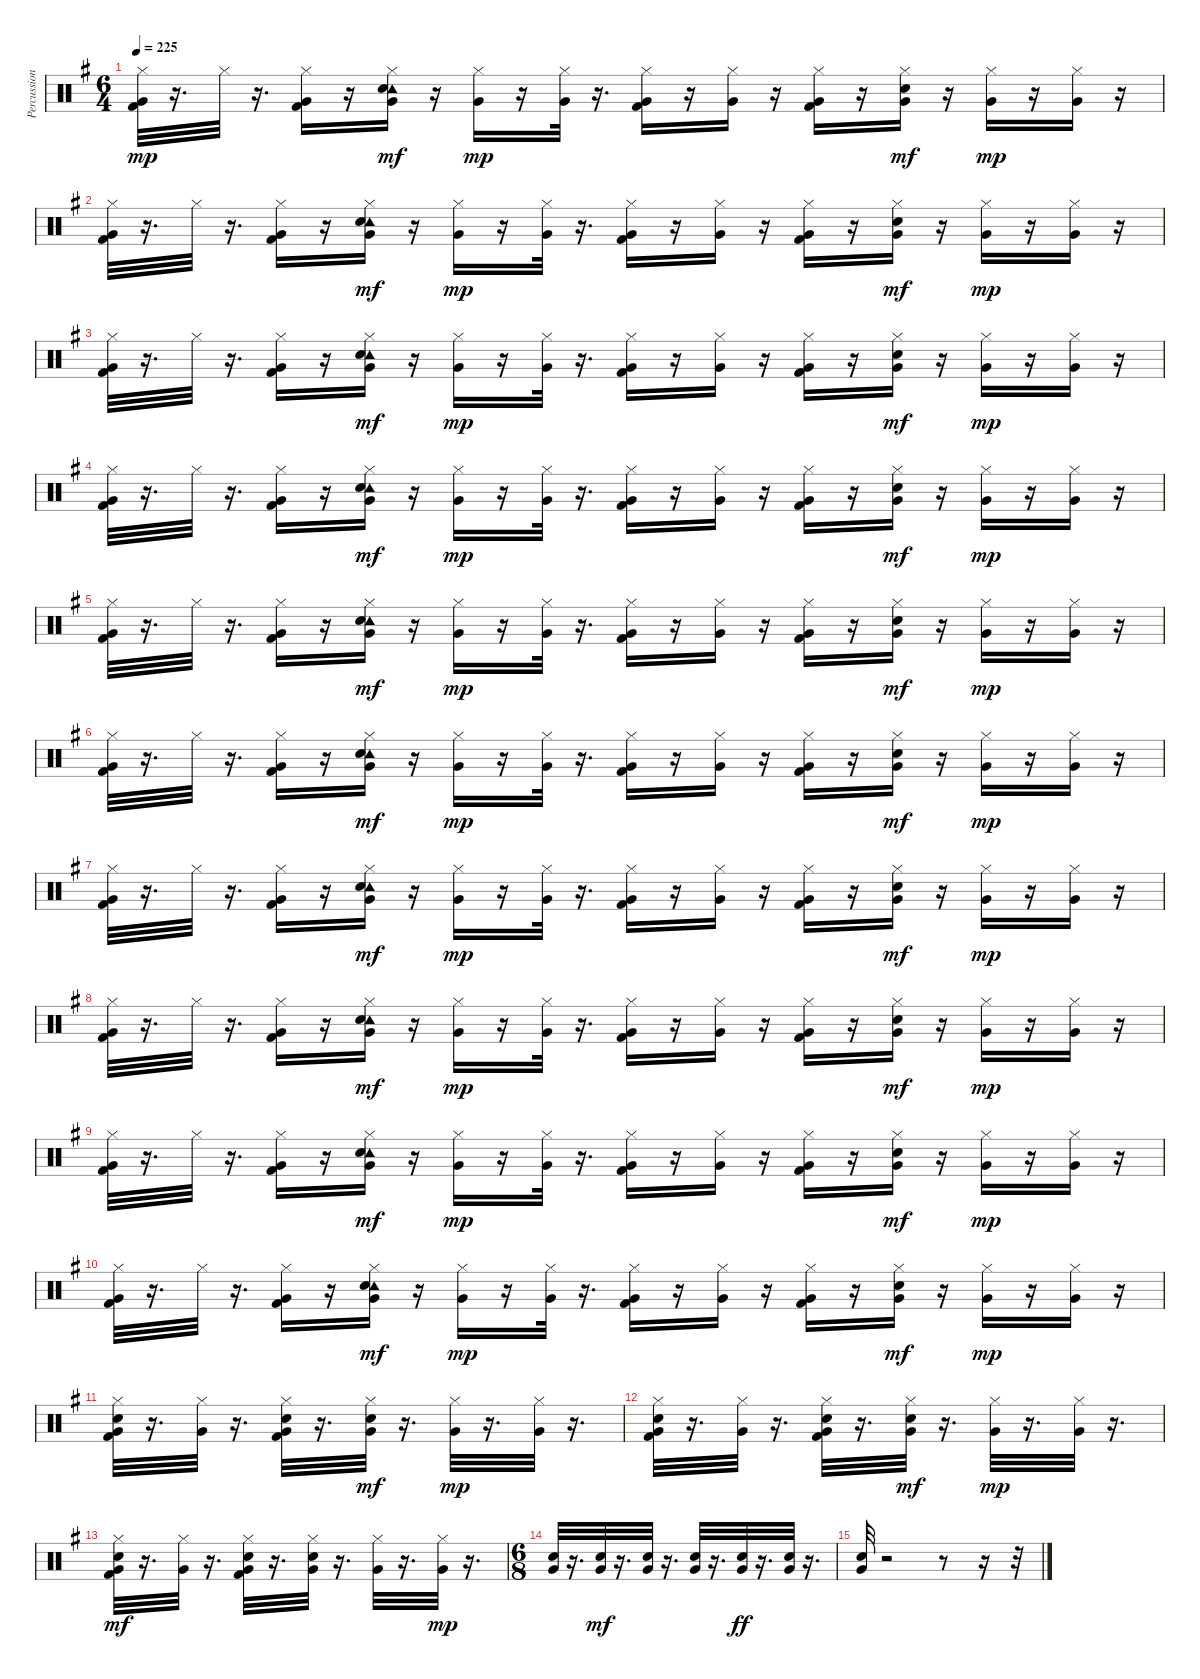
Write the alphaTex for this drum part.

\track ("Percussion" "Percussion") {instrument percussion}
\staff {score}
\articulation defaults
\ts (6 4)
\tempo 225
\clef neutral
\ks eminor
("Hi-Hat (closed)" "Very Low Tom (hit)" "Kick (hit) 2").32{dy mp} r.16{d} "Hi-Hat (closed)".32 r.16{d} ("Hi-Hat (closed)" "Very Low Tom (hit)" "Kick (hit) 2").16 r.16 ("Hi-Hat (closed)" "Very Low Tom (hit)" "Tambourine (hit)" "Electric Snare (hit)").16{dy mf} r.16 ("Hi-Hat (closed)" "Very Low Tom (hit)").16{dy mp} r.16 ("Hi-Hat (closed)" "Very Low Tom (hit)").32 r.16{d} ("Hi-Hat (closed)" "Very Low Tom (hit)" "Kick (hit) 2").16 r.16 ("Hi-Hat (closed)" "Very Low Tom (hit)").16 r.16 ("Hi-Hat (closed)" "Very Low Tom (hit)" "Kick (hit) 2").16 r.16 ("Hi-Hat (closed)" "Very Low Tom (hit)" "Electric Snare (hit)").16{dy mf} r.16 ("Hi-Hat (closed)" "Very Low Tom (hit)").16{dy mp} r.16 ("Hi-Hat (closed)" "Very Low Tom (hit)").16 r.16 |
("Hi-Hat (closed)" "Very Low Tom (hit)" "Kick (hit) 2").32 r.16{d} "Hi-Hat (closed)".32 r.16{d} ("Hi-Hat (closed)" "Very Low Tom (hit)" "Kick (hit) 2").16 r.16 ("Hi-Hat (closed)" "Very Low Tom (hit)" "Tambourine (hit)" "Electric Snare (hit)").16{dy mf} r.16 ("Hi-Hat (closed)" "Very Low Tom (hit)").16{dy mp} r.16 ("Hi-Hat (closed)" "Very Low Tom (hit)").32 r.16{d} ("Hi-Hat (closed)" "Very Low Tom (hit)" "Kick (hit) 2").16 r.16 ("Hi-Hat (closed)" "Very Low Tom (hit)").16 r.16 ("Hi-Hat (closed)" "Very Low Tom (hit)" "Kick (hit) 2").16 r.16 ("Hi-Hat (closed)" "Very Low Tom (hit)" "Electric Snare (hit)").16{dy mf} r.16 ("Hi-Hat (closed)" "Very Low Tom (hit)").16{dy mp} r.16 ("Hi-Hat (closed)" "Very Low Tom (hit)").16 r.16 |
("Hi-Hat (closed)" "Very Low Tom (hit)" "Kick (hit) 2").32 r.16{d} "Hi-Hat (closed)".32 r.16{d} ("Hi-Hat (closed)" "Very Low Tom (hit)" "Kick (hit) 2").16 r.16 ("Hi-Hat (closed)" "Very Low Tom (hit)" "Tambourine (hit)" "Electric Snare (hit)").16{dy mf} r.16 ("Hi-Hat (closed)" "Very Low Tom (hit)").16{dy mp} r.16 ("Hi-Hat (closed)" "Very Low Tom (hit)").32 r.16{d} ("Hi-Hat (closed)" "Very Low Tom (hit)" "Kick (hit) 2").16 r.16 ("Hi-Hat (closed)" "Very Low Tom (hit)").16 r.16 ("Hi-Hat (closed)" "Very Low Tom (hit)" "Kick (hit) 2").16 r.16 ("Hi-Hat (closed)" "Very Low Tom (hit)" "Electric Snare (hit)").16{dy mf} r.16 ("Hi-Hat (closed)" "Very Low Tom (hit)").16{dy mp} r.16 ("Hi-Hat (closed)" "Very Low Tom (hit)").16 r.16 |
("Hi-Hat (closed)" "Very Low Tom (hit)" "Kick (hit) 2").32 r.16{d} "Hi-Hat (closed)".32 r.16{d} ("Hi-Hat (closed)" "Very Low Tom (hit)" "Kick (hit) 2").16 r.16 ("Hi-Hat (closed)" "Very Low Tom (hit)" "Tambourine (hit)" "Electric Snare (hit)").16{dy mf} r.16 ("Hi-Hat (closed)" "Very Low Tom (hit)").16{dy mp} r.16 ("Hi-Hat (closed)" "Very Low Tom (hit)").32 r.16{d} ("Hi-Hat (closed)" "Very Low Tom (hit)" "Kick (hit) 2").16 r.16 ("Hi-Hat (closed)" "Very Low Tom (hit)").16 r.16 ("Hi-Hat (closed)" "Very Low Tom (hit)" "Kick (hit) 2").16 r.16 ("Hi-Hat (closed)" "Very Low Tom (hit)" "Electric Snare (hit)").16{dy mf} r.16 ("Hi-Hat (closed)" "Very Low Tom (hit)").16{dy mp} r.16 ("Hi-Hat (closed)" "Very Low Tom (hit)").16 r.16 |
("Hi-Hat (closed)" "Very Low Tom (hit)" "Kick (hit) 2").32 r.16{d} "Hi-Hat (closed)".32 r.16{d} ("Hi-Hat (closed)" "Very Low Tom (hit)" "Kick (hit) 2").16 r.16 ("Hi-Hat (closed)" "Very Low Tom (hit)" "Tambourine (hit)" "Electric Snare (hit)").16{dy mf} r.16 ("Hi-Hat (closed)" "Very Low Tom (hit)").16{dy mp} r.16 ("Hi-Hat (closed)" "Very Low Tom (hit)").32 r.16{d} ("Hi-Hat (closed)" "Very Low Tom (hit)" "Kick (hit) 2").16 r.16 ("Hi-Hat (closed)" "Very Low Tom (hit)").16 r.16 ("Hi-Hat (closed)" "Very Low Tom (hit)" "Kick (hit) 2").16 r.16 ("Hi-Hat (closed)" "Very Low Tom (hit)" "Electric Snare (hit)").16{dy mf} r.16 ("Hi-Hat (closed)" "Very Low Tom (hit)").16{dy mp} r.16 ("Hi-Hat (closed)" "Very Low Tom (hit)").16 r.16 |
("Hi-Hat (closed)" "Very Low Tom (hit)" "Kick (hit) 2").32 r.16{d} "Hi-Hat (closed)".32 r.16{d} ("Hi-Hat (closed)" "Very Low Tom (hit)" "Kick (hit) 2").16 r.16 ("Hi-Hat (closed)" "Very Low Tom (hit)" "Tambourine (hit)" "Electric Snare (hit)").16{dy mf} r.16 ("Hi-Hat (closed)" "Very Low Tom (hit)").16{dy mp} r.16 ("Hi-Hat (closed)" "Very Low Tom (hit)").32 r.16{d} ("Hi-Hat (closed)" "Very Low Tom (hit)" "Kick (hit) 2").16 r.16 ("Hi-Hat (closed)" "Very Low Tom (hit)").16 r.16 ("Hi-Hat (closed)" "Very Low Tom (hit)" "Kick (hit) 2").16 r.16 ("Hi-Hat (closed)" "Very Low Tom (hit)" "Electric Snare (hit)").16{dy mf} r.16 ("Hi-Hat (closed)" "Very Low Tom (hit)").16{dy mp} r.16 ("Hi-Hat (closed)" "Very Low Tom (hit)").16 r.16 |
("Hi-Hat (closed)" "Very Low Tom (hit)" "Kick (hit) 2").32 r.16{d} "Hi-Hat (closed)".32 r.16{d} ("Hi-Hat (closed)" "Very Low Tom (hit)" "Kick (hit) 2").16 r.16 ("Hi-Hat (closed)" "Very Low Tom (hit)" "Tambourine (hit)" "Electric Snare (hit)").16{dy mf} r.16 ("Hi-Hat (closed)" "Very Low Tom (hit)").16{dy mp} r.16 ("Hi-Hat (closed)" "Very Low Tom (hit)").32 r.16{d} ("Hi-Hat (closed)" "Very Low Tom (hit)" "Kick (hit) 2").16 r.16 ("Hi-Hat (closed)" "Very Low Tom (hit)").16 r.16 ("Hi-Hat (closed)" "Very Low Tom (hit)" "Kick (hit) 2").16 r.16 ("Hi-Hat (closed)" "Very Low Tom (hit)" "Electric Snare (hit)").16{dy mf} r.16 ("Hi-Hat (closed)" "Very Low Tom (hit)").16{dy mp} r.16 ("Hi-Hat (closed)" "Very Low Tom (hit)").16 r.16 |
("Hi-Hat (closed)" "Very Low Tom (hit)" "Kick (hit) 2").32 r.16{d} "Hi-Hat (closed)".32 r.16{d} ("Hi-Hat (closed)" "Very Low Tom (hit)" "Kick (hit) 2").16 r.16 ("Hi-Hat (closed)" "Very Low Tom (hit)" "Tambourine (hit)" "Electric Snare (hit)").16{dy mf} r.16 ("Hi-Hat (closed)" "Very Low Tom (hit)").16{dy mp} r.16 ("Hi-Hat (closed)" "Very Low Tom (hit)").32 r.16{d} ("Hi-Hat (closed)" "Very Low Tom (hit)" "Kick (hit) 2").16 r.16 ("Hi-Hat (closed)" "Very Low Tom (hit)").16 r.16 ("Hi-Hat (closed)" "Very Low Tom (hit)" "Kick (hit) 2").16 r.16 ("Hi-Hat (closed)" "Very Low Tom (hit)" "Electric Snare (hit)").16{dy mf} r.16 ("Hi-Hat (closed)" "Very Low Tom (hit)").16{dy mp} r.16 ("Hi-Hat (closed)" "Very Low Tom (hit)").16 r.16 |
("Hi-Hat (closed)" "Very Low Tom (hit)" "Kick (hit) 2").32 r.16{d} "Hi-Hat (closed)".32 r.16{d} ("Hi-Hat (closed)" "Very Low Tom (hit)" "Kick (hit) 2").16 r.16 ("Hi-Hat (closed)" "Very Low Tom (hit)" "Tambourine (hit)" "Electric Snare (hit)").16{dy mf} r.16 ("Hi-Hat (closed)" "Very Low Tom (hit)").16{dy mp} r.16 ("Hi-Hat (closed)" "Very Low Tom (hit)").32 r.16{d} ("Hi-Hat (closed)" "Very Low Tom (hit)" "Kick (hit) 2").16 r.16 ("Hi-Hat (closed)" "Very Low Tom (hit)").16 r.16 ("Hi-Hat (closed)" "Very Low Tom (hit)" "Kick (hit) 2").16 r.16 ("Hi-Hat (closed)" "Very Low Tom (hit)" "Electric Snare (hit)").16{dy mf} r.16 ("Hi-Hat (closed)" "Very Low Tom (hit)").16{dy mp} r.16 ("Hi-Hat (closed)" "Very Low Tom (hit)").16 r.16 |
("Hi-Hat (closed)" "Very Low Tom (hit)" "Kick (hit) 2").32 r.16{d} "Hi-Hat (closed)".32 r.16{d} ("Hi-Hat (closed)" "Very Low Tom (hit)" "Kick (hit) 2").16 r.16 ("Hi-Hat (closed)" "Very Low Tom (hit)" "Tambourine (hit)" "Electric Snare (hit)").16{dy mf} r.16 ("Hi-Hat (closed)" "Very Low Tom (hit)").16{dy mp} r.16 ("Hi-Hat (closed)" "Very Low Tom (hit)").32 r.16{d} ("Hi-Hat (closed)" "Very Low Tom (hit)" "Kick (hit) 2").16 r.16 ("Hi-Hat (closed)" "Very Low Tom (hit)").16 r.16 ("Hi-Hat (closed)" "Very Low Tom (hit)" "Kick (hit) 2").16 r.16 ("Hi-Hat (closed)" "Very Low Tom (hit)" "Electric Snare (hit)").16{dy mf} r.16 ("Hi-Hat (closed)" "Very Low Tom (hit)").16{dy mp} r.16 ("Hi-Hat (closed)" "Very Low Tom (hit)").16 r.16 |
\ks g
("Hi-Hat (closed)" "Very Low Tom (hit)" "Kick (hit) 2" "Electric Snare (hit)").32 r.16{d} ("Hi-Hat (closed)" "Very Low Tom (hit)").32 r.16{d} ("Hi-Hat (closed)" "Very Low Tom (hit)" "Kick (hit) 2" "Electric Snare (hit)").32 r.16{d} ("Hi-Hat (closed)" "Very Low Tom (hit)" "Electric Snare (hit)").32{dy mf} r.16{d} ("Hi-Hat (closed)" "Very Low Tom (hit)").32{dy mp} r.16{d} ("Hi-Hat (closed)" "Very Low Tom (hit)").32 r.16{d} |
("Hi-Hat (closed)" "Very Low Tom (hit)" "Kick (hit) 2" "Electric Snare (hit)").32 r.16{d} ("Hi-Hat (closed)" "Very Low Tom (hit)").32 r.16{d} ("Hi-Hat (closed)" "Very Low Tom (hit)" "Kick (hit) 2" "Electric Snare (hit)").32 r.16{d} ("Hi-Hat (closed)" "Very Low Tom (hit)" "Electric Snare (hit)").32{dy mf} r.16{d} ("Hi-Hat (closed)" "Very Low Tom (hit)").32{dy mp} r.16{d} ("Hi-Hat (closed)" "Very Low Tom (hit)").32 r.16{d} |
("Hi-Hat (closed)" "Very Low Tom (hit)" "Kick (hit) 2" "Electric Snare (hit)").32{dy mf} r.16{d} ("Hi-Hat (closed)" "Very Low Tom (hit)").32 r.16{d} ("Hi-Hat (closed)" "Very Low Tom (hit)" "Kick (hit) 2" "Electric Snare (hit)").32 r.16{d} ("Hi-Hat (closed)" "Very Low Tom (hit)" "Electric Snare (hit)").32 r.16{d} ("Hi-Hat (closed)" "Very Low Tom (hit)").32 r.16{d} ("Hi-Hat (closed)" "Very Low Tom (hit)").32{dy mp} r.16{d} |
\ts (6 8)
("Very Low Tom (hit)" "Electric Snare (hit)").32 r.16{d} ("Very Low Tom (hit)" "Electric Snare (hit)").32{dy mf} r.16{d} ("Very Low Tom (hit)" "Electric Snare (hit)").32 r.16{d} ("Very Low Tom (hit)" "Electric Snare (hit)").32 r.16{d} ("Very Low Tom (hit)" "Electric Snare (hit)").32{dy ff} r.16{d} ("Very Low Tom (hit)" "Electric Snare (hit)").32 r.16{d} |
("Very Low Tom (hit)" "Electric Snare (hit)").32 r.2 r.8 r.16 r.32
